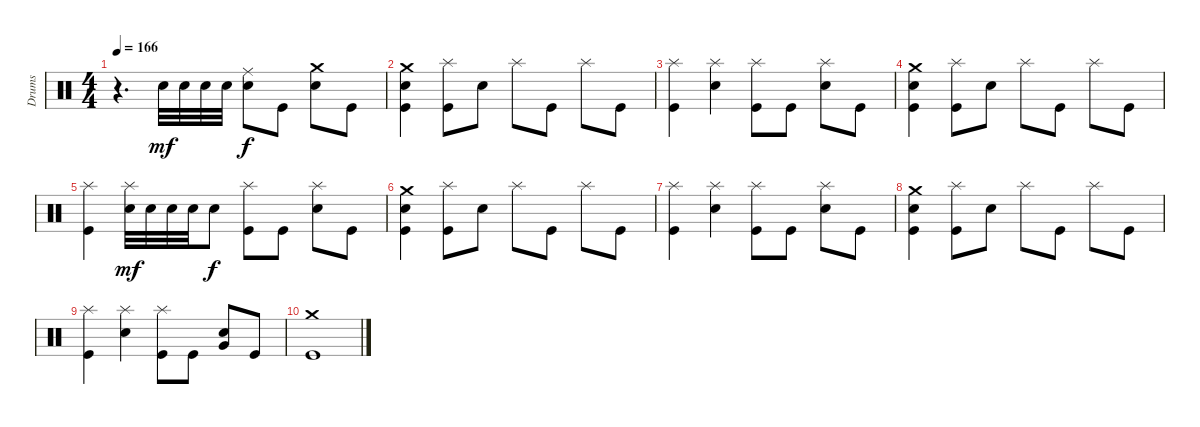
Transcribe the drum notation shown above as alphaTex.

\track ("Drums" "Drums") {instrument percussion}
\staff {score}
\articulation defaults
\ts (4 4)
\tempo 166
\clef neutral
\ks c
r.4{d dy mf} "Electric Snare (hit)".32 "Electric Snare (hit)".32 "Electric Snare (hit)".32 "Electric Snare (hit)".32 ("Ride (middle)" "Electric Snare (hit)").8{dy f} "Kick (hit)".8 ("Crash medium (hit)" "Electric Snare (hit)").8 "Kick (hit)".8 |
("Crash medium (hit)" "Electric Snare (hit)" "Kick (hit)").4 ("Splash (hit)" "Kick (hit)").8 "Electric Snare (hit)".8 "Splash (hit)".8 "Kick (hit)".8 "Splash (hit)".8 "Kick (hit)".8 |
("Splash (hit)" "Kick (hit)").4 ("Splash (hit)" "Electric Snare (hit)").4 ("Splash (hit)" "Kick (hit)").8 "Kick (hit)".8 ("Splash (hit)" "Electric Snare (hit)").8 "Kick (hit)".8 |
("Crash medium (hit)" "Electric Snare (hit)" "Kick (hit)").4 ("Splash (hit)" "Kick (hit)").8 "Electric Snare (hit)".8 "Splash (hit)".8 "Kick (hit)".8 "Splash (hit)".8 "Kick (hit)".8 |
("Splash (hit)" "Kick (hit)").4 ("Splash (hit)" "Electric Snare (hit)").32{dy mf} "Electric Snare (hit)".32 "Electric Snare (hit)".32 "Electric Snare (hit)".32 "Electric Snare (hit)".8{dy f} ("Splash (hit)" "Kick (hit)").8 "Kick (hit)".8 ("Splash (hit)" "Electric Snare (hit)").8 "Kick (hit)".8 |
("Crash medium (hit)" "Electric Snare (hit)" "Kick (hit)").4 ("Splash (hit)" "Kick (hit)").8 "Electric Snare (hit)".8 "Splash (hit)".8 "Kick (hit)".8 "Splash (hit)".8 "Kick (hit)".8 |
("Splash (hit)" "Kick (hit)").4 ("Splash (hit)" "Electric Snare (hit)").4 ("Splash (hit)" "Kick (hit)").8 "Kick (hit)".8 ("Splash (hit)" "Electric Snare (hit)").8 "Kick (hit)".8 |
("Crash medium (hit)" "Electric Snare (hit)" "Kick (hit)").4 ("Splash (hit)" "Kick (hit)").8 "Electric Snare (hit)".8 "Splash (hit)".8 "Kick (hit)".8 "Splash (hit)".8 "Kick (hit)".8 |
("Splash (hit)" "Kick (hit)").4 ("Splash (hit)" "Electric Snare (hit)").4 ("Splash (hit)" "Kick (hit)").8 "Kick (hit)".8 ("Electric Snare (hit)" "Very Low Tom (hit)").8 "Kick (hit)".8 |
("Crash medium (hit)" "Kick (hit)").1
